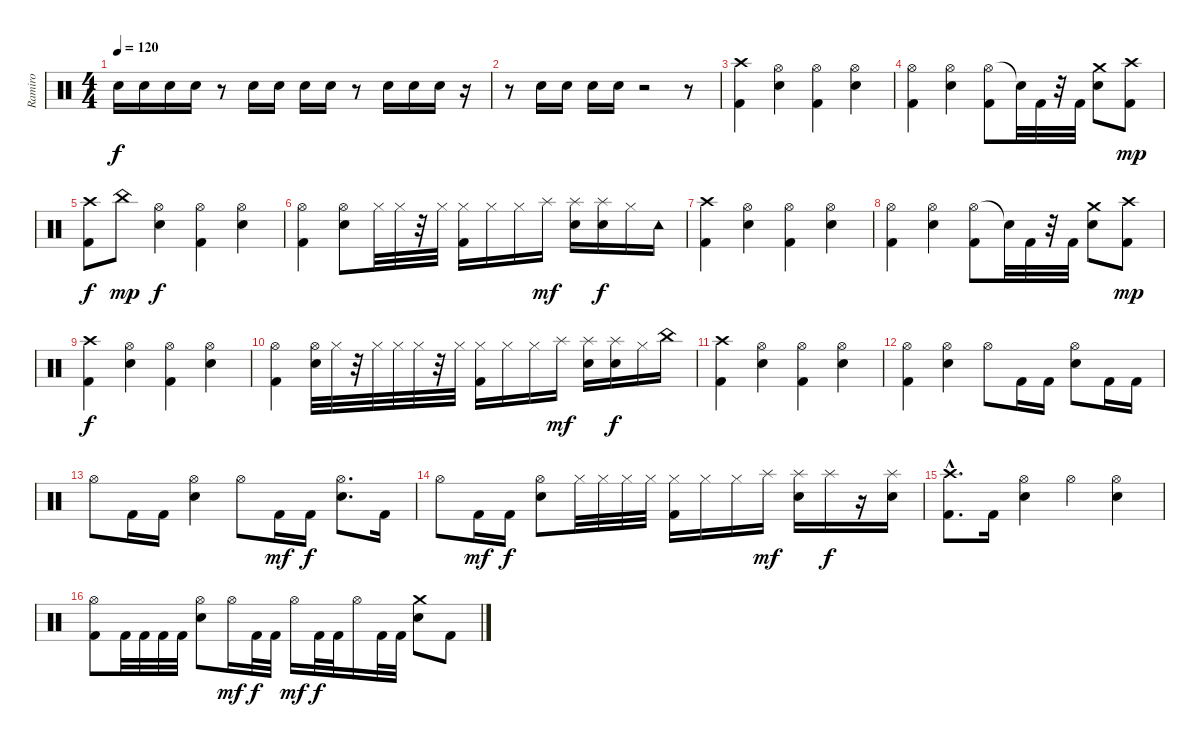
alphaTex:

\track ("Ramiro" "Ramiro") {instrument percussion}
\staff {score}
\articulation defaults
\ts (4 4)
\tempo 120
\tempo 110
\tempo 120
\clef neutral
\ks c "Electric Snare (hit)".16{dy f} "Electric Snare (hit)".16 "Electric Snare (hit)".16 "Electric Snare (hit)".16
r.8 "Electric Snare (hit)".16 "Electric Snare (hit)".16 "Electric Snare (hit)".16 "Electric Snare (hit)".16 r.8 "Electric Snare (hit)".16 "Electric Snare (hit)".16 "Electric Snare (hit)".16 r.16 |
r.8 "Electric Snare (hit)".16 "Electric Snare (hit)".16 "Electric Snare (hit)".16 "Electric Snare (hit)".16 r.2 r.8 |
("Kick (hit) 2" "Crash high (hit)").4 ("Electric Snare (hit)" "Hi-Hat (open)").4 ("Kick (hit) 2" "Hi-Hat (open)").4 ("Electric Snare (hit)" "Hi-Hat (open)").4 |
("Kick (hit) 2" "Hi-Hat (open)").4 ("Electric Snare (hit)" "Hi-Hat (open)").4 ("Hi-Hat (open)" "Kick (hit) 2").8 "Snare (hit)"{t}.32 "Kick (hit) 2".32 r.32 "Kick (hit) 2".32 ("Electric Snare (hit)" "Crash medium (hit)").8 ("Kick (hit) 2" "Crash high (hit)").8{dy mp} |
("Crash high (hit)" "Kick (hit) 2").8{dy f} "China (hit)".8{dy mp} ("Electric Snare (hit)" "Hi-Hat (open)").4{dy f} ("Kick (hit) 2" "Hi-Hat (open)").4 ("Electric Snare (hit)" "Hi-Hat (open)").4 |
("Kick (hit) 2" "Hi-Hat (open)").4 ("Electric Snare (hit)" "Hi-Hat (open)").8 "Hi-Hat (closed)".32 "Hi-Hat (closed)".32 r.32 "Hi-Hat (closed)".32 ("Kick (hit) 2" "Hi-Hat (closed)").16 "Hi-Hat (closed)".16 "Hi-Hat (closed)".16 "Splash (hit)".16{dy mf} ("Splash (hit)" "Electric Snare (hit)").16 ("Electric Snare (hit)" "Splash (hit)").16{dy f} "Hi-Hat (closed)".16 "Tambourine (hit)".16 |
("Crash high (hit)" "Kick (hit) 2").4 ("Electric Snare (hit)" "Hi-Hat (open)").4 ("Kick (hit) 2" "Hi-Hat (open)").4 ("Electric Snare (hit)" "Hi-Hat (open)").4 |
("Kick (hit) 2" "Hi-Hat (open)").4 ("Electric Snare (hit)" "Hi-Hat (open)").4 ("Hi-Hat (open)" "Kick (hit) 2").8 "Snare (hit)"{t}.32 "Kick (hit) 2".32 r.32 "Kick (hit) 2".32 ("Electric Snare (hit)" "Crash medium (hit)").8 ("Kick (hit) 2" "Crash high (hit)").8{dy mp} |
("Kick (hit) 2" "Crash high (hit)").4{dy f} ("Electric Snare (hit)" "Hi-Hat (open)").4 ("Kick (hit) 2" "Hi-Hat (open)").4 ("Electric Snare (hit)" "Hi-Hat (open)").4 |
("Kick (hit) 2" "Hi-Hat (open)").4 ("Electric Snare (hit)" "Hi-Hat (open)").32 "Hi-Hat (closed)".32 r.32 "Hi-Hat (closed)".32 "Hi-Hat (closed)".32 "Hi-Hat (closed)".32 r.32 "Hi-Hat (closed)".32 ("Kick (hit) 2" "Hi-Hat (closed)").16 "Hi-Hat (closed)".16 "Hi-Hat (closed)".16 "Splash (hit)".16{dy mf} ("Splash (hit)" "Electric Snare (hit)").16 ("Electric Snare (hit)" "Splash (hit)").16{dy f} "Hi-Hat (closed)".16 "China (hit)".16 |
("Crash high (hit)" "Kick (hit) 2").4 ("Electric Snare (hit)" "Hi-Hat (open)").4 ("Kick (hit) 2" "Hi-Hat (open)").4 ("Electric Snare (hit)" "Hi-Hat (open)").4 |
("Kick (hit) 2" "Hi-Hat (open)").4 ("Electric Snare (hit)" "Hi-Hat (open)").4 "Hi-Hat (open)".8 "Kick (hit) 2".16 "Kick (hit) 2".16 ("Electric Snare (hit)" "Hi-Hat (open)").8 "Kick (hit) 2".16 "Kick (hit) 2".16 |
"Hi-Hat (open)".8 "Kick (hit) 2".16 "Kick (hit) 2".16 ("Hi-Hat (open)" "Electric Snare (hit)").4 "Hi-Hat (open)".8 "Kick (hit) 2".16{dy mf} "Kick (hit) 2".16{dy f} ("Hi-Hat (open)" "Electric Snare (hit)").8{d} "Kick (hit) 2".16 |
"Hi-Hat (open)".8 "Kick (hit) 2".16{dy mf} "Kick (hit) 2".16{dy f} ("Electric Snare (hit)" "Hi-Hat (open)").8 "Hi-Hat (closed)".32 "Hi-Hat (closed)".32 "Hi-Hat (closed)".32 "Hi-Hat (closed)".32 ("Kick (hit) 2" "Hi-Hat (closed)").16 "Hi-Hat (closed)".16 "Hi-Hat (closed)".16 "Splash (hit)".16{dy mf} ("Splash (hit)" "Electric Snare (hit)").16 "Splash (hit)".16{dy f} r.16 ("Electric Snare (hit)" "Splash (hit)").16 |
("Crash high (hit)" "Kick (hit) 2"{hac}).8{d} "Kick (hit) 2".16 ("Electric Snare (hit)" "Hi-Hat (open)").4 "Hi-Hat (open)".4 ("Electric Snare (hit)" "Hi-Hat (open)").4 |
("Hi-Hat (open)" "Kick (hit) 2").8 "Kick (hit) 2".32 "Kick (hit) 2".32 "Kick (hit) 2".32 "Kick (hit) 2".32 ("Electric Snare (hit)" "Hi-Hat (open)").8 "Hi-Hat (open)".16{dy mf} "Kick (hit) 2".32{dy f} "Kick (hit) 2".32 "Hi-Hat (open)".16{dy mf} "Kick (hit) 2".32{dy f} "Kick (hit) 2".32 "Hi-Hat (open)".16 "Kick (hit) 2".32 "Kick (hit) 2".32 ("Electric Snare (hit)" "Crash medium (hit)").8 "Kick (hit) 2".8
